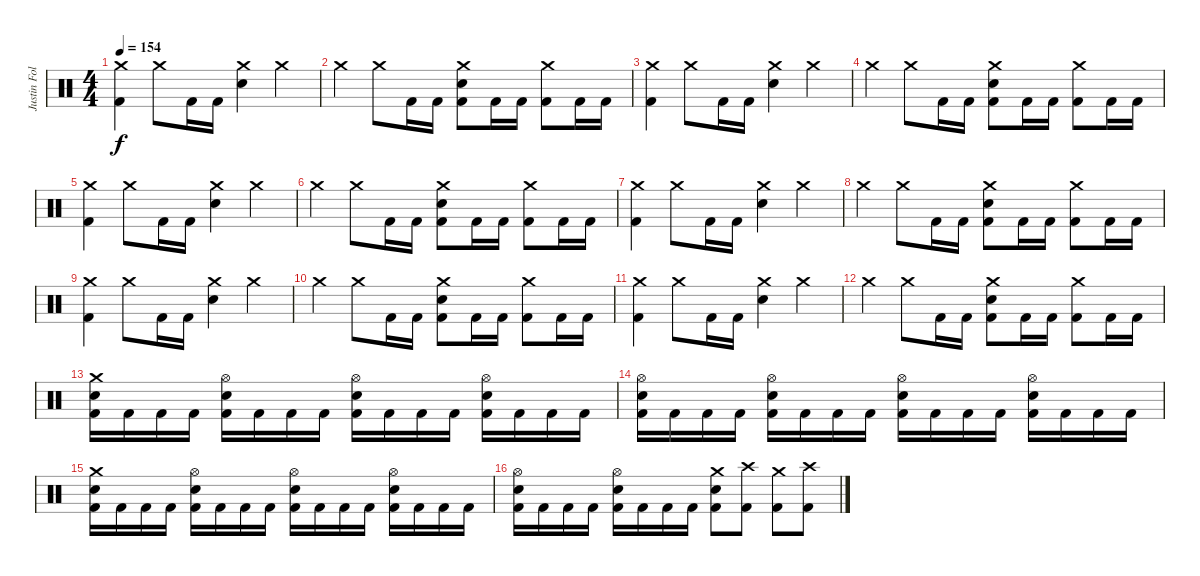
\track ("Justin Foley" "Justin Fol") {instrument percussion}
\staff {score}
\articulation defaults
\ts (4 4)
\tempo 154
\clef neutral
\ks c
("Crash medium (hit)" "Kick (hit) 2").4{dy f} "Crash medium (hit)".8 "Kick (hit) 2".16 "Kick (hit) 2".16 ("Crash medium (hit)" "Electric Snare (hit)").4 "Crash medium (hit)".4 |
"Crash medium (hit)".4 "Crash medium (hit)".8 "Kick (hit) 2".16 "Kick (hit) 2".16 ("Crash medium (hit)" "Electric Snare (hit)" "Kick (hit) 2").8 "Kick (hit) 2".16 "Kick (hit) 2".16 ("Crash medium (hit)" "Kick (hit) 2").8 "Kick (hit) 2".16 "Kick (hit) 2".16 |
("Crash medium (hit)" "Kick (hit) 2").4 "Crash medium (hit)".8 "Kick (hit) 2".16 "Kick (hit) 2".16 ("Crash medium (hit)" "Electric Snare (hit)").4 "Crash medium (hit)".4 |
"Crash medium (hit)".4 "Crash medium (hit)".8 "Kick (hit) 2".16 "Kick (hit) 2".16 ("Crash medium (hit)" "Electric Snare (hit)" "Kick (hit) 2").8 "Kick (hit) 2".16 "Kick (hit) 2".16 ("Crash medium (hit)" "Kick (hit) 2").8 "Kick (hit) 2".16 "Kick (hit) 2".16 |
("Crash medium (hit)" "Kick (hit) 2").4 "Crash medium (hit)".8 "Kick (hit) 2".16 "Kick (hit) 2".16 ("Crash medium (hit)" "Electric Snare (hit)").4 "Crash medium (hit)".4 |
"Crash medium (hit)".4 "Crash medium (hit)".8 "Kick (hit) 2".16 "Kick (hit) 2".16 ("Crash medium (hit)" "Electric Snare (hit)" "Kick (hit) 2").8 "Kick (hit) 2".16 "Kick (hit) 2".16 ("Crash medium (hit)" "Kick (hit) 2").8 "Kick (hit) 2".16 "Kick (hit) 2".16 |
("Crash medium (hit)" "Kick (hit) 2").4 "Crash medium (hit)".8 "Kick (hit) 2".16 "Kick (hit) 2".16 ("Crash medium (hit)" "Electric Snare (hit)").4 "Crash medium (hit)".4 |
"Crash medium (hit)".4 "Crash medium (hit)".8 "Kick (hit) 2".16 "Kick (hit) 2".16 ("Crash medium (hit)" "Electric Snare (hit)" "Kick (hit) 2").8 "Kick (hit) 2".16 "Kick (hit) 2".16 ("Crash medium (hit)" "Kick (hit) 2").8 "Kick (hit) 2".16 "Kick (hit) 2".16 |
("Crash medium (hit)" "Kick (hit) 2").4 "Crash medium (hit)".8 "Kick (hit) 2".16 "Kick (hit) 2".16 ("Crash medium (hit)" "Electric Snare (hit)").4 "Crash medium (hit)".4 |
"Crash medium (hit)".4 "Crash medium (hit)".8 "Kick (hit) 2".16 "Kick (hit) 2".16 ("Crash medium (hit)" "Electric Snare (hit)" "Kick (hit) 2").8 "Kick (hit) 2".16 "Kick (hit) 2".16 ("Crash medium (hit)" "Kick (hit) 2").8 "Kick (hit) 2".16 "Kick (hit) 2".16 |
("Crash medium (hit)" "Kick (hit) 2").4 "Crash medium (hit)".8 "Kick (hit) 2".16 "Kick (hit) 2".16 ("Crash medium (hit)" "Electric Snare (hit)").4 "Crash medium (hit)".4 |
"Crash medium (hit)".4 "Crash medium (hit)".8 "Kick (hit) 2".16 "Kick (hit) 2".16 ("Crash medium (hit)" "Electric Snare (hit)" "Kick (hit) 2").8 "Kick (hit) 2".16 "Kick (hit) 2".16 ("Crash medium (hit)" "Kick (hit) 2").8 "Kick (hit) 2".16 "Kick (hit) 2".16 |
("Crash medium (hit)" "Electric Snare (hit)" "Kick (hit) 2").16 "Kick (hit) 2".16 "Kick (hit) 2".16 "Kick (hit) 2".16 ("Hi-Hat (open)" "Electric Snare (hit)" "Kick (hit) 2").16 "Kick (hit) 2".16 "Kick (hit) 2".16 "Kick (hit) 2".16 ("Hi-Hat (open)" "Electric Snare (hit)" "Kick (hit) 2").16 "Kick (hit) 2".16 "Kick (hit) 2".16 "Kick (hit) 2".16 ("Hi-Hat (open)" "Electric Snare (hit)" "Kick (hit) 2").16 "Kick (hit) 2".16 "Kick (hit) 2".16 "Kick (hit) 2".16 |
("Hi-Hat (open)" "Electric Snare (hit)" "Kick (hit) 2").16 "Kick (hit) 2".16 "Kick (hit) 2".16 "Kick (hit) 2".16 ("Hi-Hat (open)" "Electric Snare (hit)" "Kick (hit) 2").16 "Kick (hit) 2".16 "Kick (hit) 2".16 "Kick (hit) 2".16 ("Hi-Hat (open)" "Electric Snare (hit)" "Kick (hit) 2").16 "Kick (hit) 2".16 "Kick (hit) 2".16 "Kick (hit) 2".16 ("Hi-Hat (open)" "Electric Snare (hit)" "Kick (hit) 2").16 "Kick (hit) 2".16 "Kick (hit) 2".16 "Kick (hit) 2".16 |
("Crash medium (hit)" "Electric Snare (hit)" "Kick (hit) 2").16 "Kick (hit) 2".16 "Kick (hit) 2".16 "Kick (hit) 2".16 ("Hi-Hat (open)" "Electric Snare (hit)" "Kick (hit) 2").16 "Kick (hit) 2".16 "Kick (hit) 2".16 "Kick (hit) 2".16 ("Hi-Hat (open)" "Electric Snare (hit)" "Kick (hit) 2").16 "Kick (hit) 2".16 "Kick (hit) 2".16 "Kick (hit) 2".16 ("Hi-Hat (open)" "Electric Snare (hit)" "Kick (hit) 2").16 "Kick (hit) 2".16 "Kick (hit) 2".16 "Kick (hit) 2".16 |
("Hi-Hat (open)" "Electric Snare (hit)" "Kick (hit) 2").16 "Kick (hit) 2".16 "Kick (hit) 2".16 "Kick (hit) 2".16 ("Hi-Hat (open)" "Electric Snare (hit)" "Kick (hit) 2").16 "Kick (hit) 2".16 "Kick (hit) 2".16 "Kick (hit) 2".16 ("Crash medium (hit)" "Electric Snare (hit)" "Kick (hit) 2").8 ("Crash high (hit)" "Kick (hit) 2").8 ("Crash medium (hit)" "Kick (hit) 2").8 ("Crash high (hit)" "Kick (hit) 2").8
